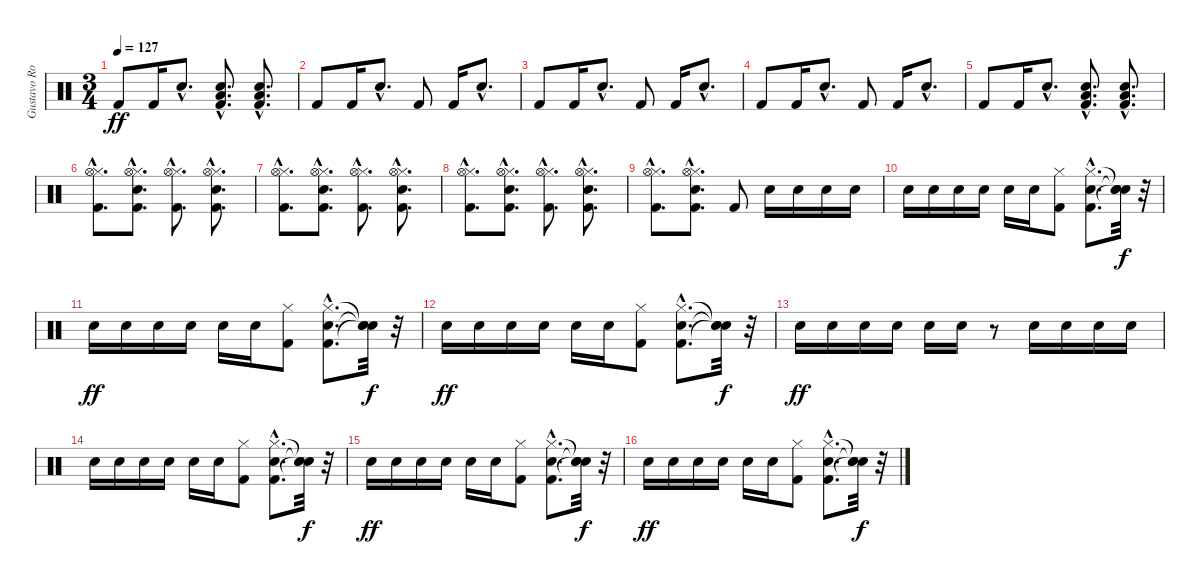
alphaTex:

\track ("Gustavo Rowek 2" "Gustavo Ro") {instrument percussion}
\staff {score}
\articulation defaults
\ts (3 4)
\tempo 127
\clef neutral
\ks c "Kick (hit) 2".8{dy ff} "Kick (hit) 2".16 "Snare (hit) 2"{hac}.8{d}
("Kick (hit) 2"{hac} "Snare (hit) 2"{hac} "Low Floor Tom (hit)"{hac}).8{d} ("Kick (hit) 2"{hac} "Snare (hit) 2"{hac} "Low Floor Tom (hit)"{hac}).8{d} |
"Kick (hit) 2".8 "Kick (hit) 2".16 "Snare (hit) 2"{hac}.8{d} "Kick (hit) 2".8 "Kick (hit) 2".16 "Snare (hit) 2"{hac}.8{d} |
"Kick (hit) 2".8 "Kick (hit) 2".16 "Snare (hit) 2"{hac}.8{d} "Kick (hit) 2".8 "Kick (hit) 2".16 "Snare (hit) 2"{hac}.8{d} |
"Kick (hit) 2".8 "Kick (hit) 2".16 "Snare (hit) 2"{hac}.8{d} "Kick (hit) 2".8 "Kick (hit) 2".16 "Snare (hit) 2"{hac}.8{d} |
"Kick (hit) 2".8 "Kick (hit) 2".16 "Snare (hit) 2"{hac}.8{d} ("Kick (hit) 2"{hac} "Snare (hit) 2"{hac} "Low Floor Tom (hit)"{hac}).8{d} ("Kick (hit) 2"{hac} "Snare (hit) 2"{hac} "Low Floor Tom (hit)"{hac}).8{d} |
("Kick (hit) 2"{hac} "Hi-Hat (closed)"{hac} "Hi-Hat (open)"{hac}).8{d} ("Kick (hit) 2"{hac} "Snare (hit) 2"{hac} "Hi-Hat (closed)"{hac} "Hi-Hat (open)"{hac}).8{d} ("Kick (hit) 2"{hac} "Hi-Hat (closed)"{hac} "Hi-Hat (open)"{hac}).8{d} ("Kick (hit) 2"{hac} "Snare (hit) 2"{hac} "Hi-Hat (closed)"{hac} "Hi-Hat (open)"{hac}).8{d} |
("Kick (hit) 2"{hac} "Hi-Hat (closed)"{hac} "Hi-Hat (open)"{hac}).8{d} ("Kick (hit) 2"{hac} "Snare (hit) 2"{hac} "Hi-Hat (closed)"{hac} "Hi-Hat (open)"{hac}).8{d} ("Kick (hit) 2"{hac} "Hi-Hat (closed)"{hac} "Hi-Hat (open)"{hac}).8{d} ("Kick (hit) 2"{hac} "Snare (hit) 2"{hac} "Hi-Hat (closed)"{hac} "Hi-Hat (open)"{hac}).8{d} |
("Kick (hit) 2"{hac} "Hi-Hat (closed)"{hac} "Hi-Hat (open)"{hac}).8{d} ("Kick (hit) 2"{hac} "Snare (hit) 2"{hac} "Hi-Hat (closed)"{hac} "Hi-Hat (open)"{hac}).8{d} ("Kick (hit) 2"{hac} "Hi-Hat (closed)"{hac} "Hi-Hat (open)"{hac}).8{d} ("Kick (hit) 2"{hac} "Snare (hit) 2"{hac} "Hi-Hat (closed)"{hac} "Hi-Hat (open)"{hac}).8{d} |
("Kick (hit) 2"{hac} "Hi-Hat (closed)"{hac} "Hi-Hat (open)"{hac}).8{d} ("Kick (hit) 2"{hac} "Snare (hit) 2"{hac} "Hi-Hat (closed)"{hac} "Hi-Hat (open)"{hac}).8{d} "Kick (hit) 2".8 "Electric Snare (hit)".16 "Electric Snare (hit)".16 "Electric Snare (hit)".16 "Electric Snare (hit)".16 |
"Electric Snare (hit)".16 "Electric Snare (hit)".16 "Electric Snare (hit)".16 "Electric Snare (hit)".16 "Electric Snare (hit)".16 "Electric Snare (hit)".16 ("Kick (hit) 2" "Hi-Hat (closed)").8 ("Kick (hit) 2"{hac} "Snare (hit) 2"{hac} "Hi-Hat (closed)"{hac}).8{d} ("Snare (hit)"{t} "Snare (hit)"{t} "Snare (hit)"{t}).32{dy f} r.32 |
"Snare (hit) 2".16{dy ff} "Electric Snare (hit)".16 "Electric Snare (hit)".16 "Electric Snare (hit)".16 "Electric Snare (hit)".16 "Electric Snare (hit)".16 ("Kick (hit) 2" "Hi-Hat (closed)").8 ("Kick (hit) 2"{hac} "Snare (hit) 2"{hac} "Hi-Hat (closed)"{hac}).8{d} ("Snare (hit)"{t} "Snare (hit)"{t} "Snare (hit)"{t}).32{dy f} r.32 |
"Snare (hit) 2".16{dy ff} "Electric Snare (hit)".16 "Electric Snare (hit)".16 "Electric Snare (hit)".16 "Electric Snare (hit)".16 "Electric Snare (hit)".16 ("Kick (hit) 2" "Hi-Hat (closed)").8 ("Kick (hit) 2"{hac} "Snare (hit) 2"{hac} "Hi-Hat (closed)"{hac}).8{d} ("Snare (hit)"{t} "Snare (hit)"{t} "Snare (hit)"{t}).32{dy f} r.32 |
"Electric Snare (hit)".16{dy ff} "Electric Snare (hit)".16 "Electric Snare (hit)".16 "Electric Snare (hit)".16 "Electric Snare (hit)".16 "Electric Snare (hit)".16 r.8 "Electric Snare (hit)".16 "Electric Snare (hit)".16 "Electric Snare (hit)".16 "Electric Snare (hit)".16 |
"Electric Snare (hit)".16 "Electric Snare (hit)".16 "Electric Snare (hit)".16 "Electric Snare (hit)".16 "Electric Snare (hit)".16 "Electric Snare (hit)".16 ("Kick (hit) 2" "Hi-Hat (closed)").8 ("Kick (hit) 2"{hac} "Snare (hit) 2"{hac} "Hi-Hat (closed)"{hac}).8{d} ("Snare (hit)"{t} "Snare (hit)"{t} "Snare (hit)"{t}).32{dy f} r.32 |
"Snare (hit) 2".16{dy ff} "Electric Snare (hit)".16 "Electric Snare (hit)".16 "Electric Snare (hit)".16 "Electric Snare (hit)".16 "Electric Snare (hit)".16 ("Kick (hit) 2" "Hi-Hat (closed)").8 ("Kick (hit) 2"{hac} "Snare (hit) 2"{hac} "Hi-Hat (closed)"{hac}).8{d} ("Snare (hit)"{t} "Snare (hit)"{t} "Snare (hit)"{t}).32{dy f} r.32 |
"Snare (hit) 2".16{dy ff} "Electric Snare (hit)".16 "Electric Snare (hit)".16 "Electric Snare (hit)".16 "Electric Snare (hit)".16 "Electric Snare (hit)".16 ("Kick (hit) 2" "Hi-Hat (closed)").8 ("Kick (hit) 2"{hac} "Snare (hit) 2"{hac} "Hi-Hat (closed)"{hac}).8{d} ("Snare (hit)"{t} "Snare (hit)"{t} "Snare (hit)"{t}).32{dy f} r.32
